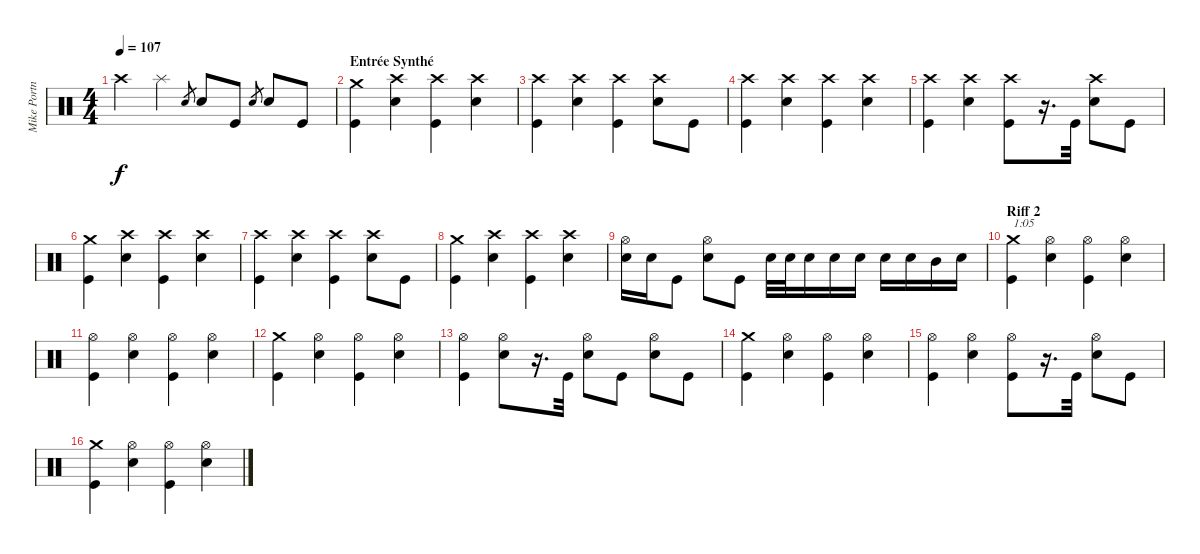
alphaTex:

\track ("Mike Portnoy" "Mike Portn") {instrument percussion}
\staff {score}
\articulation defaults
\ts (4 4)
\tempo 107
\clef neutral
\ks c "Crash high (hit)".4{dy f} "Splash (hit)".4 "Snare (hit) 2".8{gr} "Snare (hit) 2".8 "Kick (hit)".8 "Snare (hit) 2".8{gr} "Snare (hit) 2".8 "Kick (hit)".8
|
\section ("" "Entrée Synthé")
("Crash medium (hit)" "Kick (hit)").4 ("Crash high (hit)" "Snare (hit) 2").4 ("Crash high (hit)" "Kick (hit)").4 ("Crash high (hit)" "Snare (hit) 2").4 |
("Crash high (hit)" "Kick (hit)").4 ("Crash high (hit)" "Snare (hit) 2").4 ("Crash high (hit)" "Kick (hit)").4 ("Crash high (hit)" "Snare (hit) 2").8 "Kick (hit)".8 |
("Crash high (hit)" "Kick (hit)").4 ("Crash high (hit)" "Snare (hit) 2").4 ("Crash high (hit)" "Kick (hit)").4 ("Crash high (hit)" "Snare (hit) 2").4 |
("Crash high (hit)" "Kick (hit)").4 ("Crash high (hit)" "Snare (hit) 2").4 ("Crash high (hit)" "Kick (hit)").8 r.16{d} "Kick (hit)".32 ("Crash high (hit)" "Snare (hit) 2").8 "Kick (hit)".8 |
("Crash medium (hit)" "Kick (hit)").4 ("Crash high (hit)" "Snare (hit) 2").4 ("Crash high (hit)" "Kick (hit)").4 ("Crash high (hit)" "Snare (hit) 2").4 |
("Crash high (hit)" "Kick (hit)").4 ("Crash high (hit)" "Snare (hit) 2").4 ("Crash high (hit)" "Kick (hit)").4 ("Crash high (hit)" "Snare (hit) 2").8 "Kick (hit)".8 |
("Crash medium (hit)" "Kick (hit)").4 ("Crash high (hit)" "Snare (hit) 2").4 ("Crash high (hit)" "Kick (hit)").4 ("Crash high (hit)" "Snare (hit) 2").4 |
("Hi-Hat (open)" "Snare (hit) 2").16 "Snare (hit) 2".16 "Kick (hit)".8 ("Hi-Hat (open)" "Snare (hit) 2").8 "Kick (hit)".8 "Snare (hit) 2".32 "Snare (hit) 2".32 "Snare (hit) 2".16 "Snare (hit) 2".16 "Snare (hit) 2".16 "Snare (hit) 2".16 "Snare (hit) 2".16 "Mid Tom (hit)".16 "Snare (hit) 2".16 |
\section ("" "Riff 2")
("Crash medium (hit)" "Kick (hit)").4{txt "1:05"} ("Hi-Hat (open)" "Snare (hit) 2").4 ("Hi-Hat (open)" "Kick (hit)").4 ("Hi-Hat (open)" "Snare (hit) 2").4 |
("Hi-Hat (open)" "Kick (hit)").4 ("Hi-Hat (open)" "Snare (hit) 2").4 ("Hi-Hat (open)" "Kick (hit)").4 ("Hi-Hat (open)" "Snare (hit) 2").4 |
("Crash medium (hit)" "Kick (hit)").4 ("Hi-Hat (open)" "Snare (hit) 2").4 ("Hi-Hat (open)" "Kick (hit)").4 ("Hi-Hat (open)" "Snare (hit) 2").4 |
("Hi-Hat (open)" "Kick (hit)").4 ("Hi-Hat (open)" "Snare (hit) 2").8 r.16{d} "Kick (hit)".32 ("Hi-Hat (open)" "Snare (hit) 2").8 "Kick (hit)".8 ("Hi-Hat (open)" "Snare (hit) 2").8 "Kick (hit)".8 |
("Crash medium (hit)" "Kick (hit)").4 ("Hi-Hat (open)" "Snare (hit) 2").4 ("Hi-Hat (open)" "Kick (hit)").4 ("Hi-Hat (open)" "Snare (hit) 2").4 |
("Hi-Hat (open)" "Kick (hit)").4 ("Hi-Hat (open)" "Snare (hit) 2").4 ("Hi-Hat (open)" "Kick (hit)").8 r.16{d} "Kick (hit)".32 ("Hi-Hat (open)" "Snare (hit) 2").8 "Kick (hit)".8 |
("Crash medium (hit)" "Kick (hit)").4 ("Hi-Hat (open)" "Snare (hit) 2").4 ("Hi-Hat (open)" "Kick (hit)").4 ("Hi-Hat (open)" "Snare (hit) 2").4
